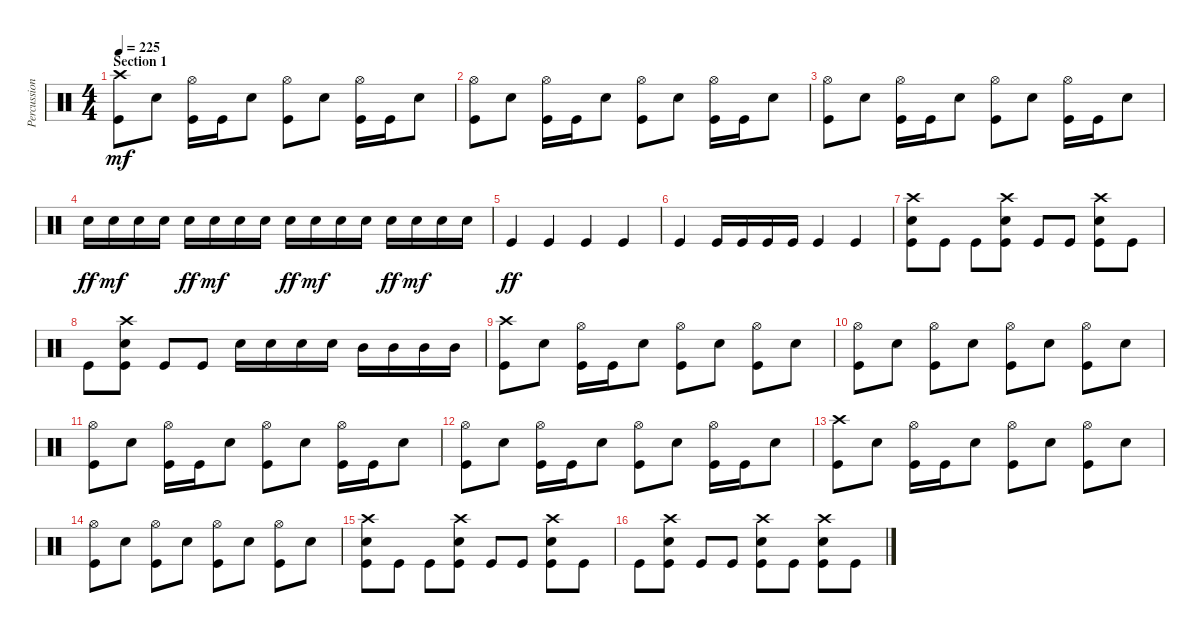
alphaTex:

\track ("Percussion" "Percussion") {instrument percussion}
\staff {score}
\articulation defaults
\ts (4 4)
\section ("" "Section 1")
\tempo 225
\clef neutral
\ks c
("Crash high (hit)" "Kick (hit)").8{dy mf} "Snare (hit) 2".8 ("Hi-Hat (open)" "Kick (hit)").16 "Kick (hit)".16 "Snare (hit) 2".8 ("Hi-Hat (open)" "Kick (hit)").8 "Snare (hit) 2".8 ("Hi-Hat (open)" "Kick (hit)").16 "Kick (hit)".16 "Snare (hit) 2".8 |
("Hi-Hat (open)" "Kick (hit)").8 "Snare (hit) 2".8 ("Hi-Hat (open)" "Kick (hit)").16 "Kick (hit)".16 "Snare (hit) 2".8 ("Hi-Hat (open)" "Kick (hit)").8 "Snare (hit) 2".8 ("Hi-Hat (open)" "Kick (hit)").16 "Kick (hit)".16 "Snare (hit) 2".8 |
("Hi-Hat (open)" "Kick (hit)").8 "Snare (hit) 2".8 ("Hi-Hat (open)" "Kick (hit)").16 "Kick (hit)".16 "Snare (hit) 2".8 ("Hi-Hat (open)" "Kick (hit)").8 "Snare (hit) 2".8 ("Hi-Hat (open)" "Kick (hit)").16 "Kick (hit)".16 "Snare (hit) 2".8 |
"Snare (hit) 2".16{dy ff} "Snare (hit) 2".16{dy mf} "Snare (hit) 2".16 "Snare (hit) 2".16 "Snare (hit) 2".16{dy ff} "Snare (hit) 2".16{dy mf} "Snare (hit) 2".16 "Snare (hit) 2".16 "Snare (hit) 2".16{dy ff} "Snare (hit) 2".16{dy mf} "Snare (hit) 2".16 "Snare (hit) 2".16 "Snare (hit) 2".16{dy ff} "Snare (hit) 2".16{dy mf} "Snare (hit) 2".16 "Snare (hit) 2".16 |
"Kick (hit)".4{dy ff} "Kick (hit)".4 "Kick (hit)".4 "Kick (hit)".4 |
"Kick (hit)".4 "Kick (hit)".16 "Kick (hit)".16 "Kick (hit)".16 "Kick (hit)".16 "Kick (hit)".4 "Kick (hit)".4 |
("Crash high (hit)" "Snare (hit) 2" "Kick (hit)").8 "Kick (hit)".8 "Kick (hit)".8 ("Crash high (hit)" "Snare (hit) 2" "Kick (hit)").8 "Kick (hit)".8 "Kick (hit)".8 ("Crash high (hit)" "Snare (hit) 2" "Kick (hit)").8 "Kick (hit)".8 |
"Kick (hit)".8 ("Crash high (hit)" "Snare (hit) 2" "Kick (hit)").8 "Kick (hit)".8 "Kick (hit)".8 "Snare (hit) 2".16 "Snare (hit) 2".16 "Snare (hit) 2".16 "Snare (hit) 2".16 "Mid Tom (hit)".16 "Mid Tom (hit)".16 "Mid Tom (hit)".16 "Mid Tom (hit)".16 |
("Crash high (hit)" "Kick (hit)").8 "Snare (hit) 2".8 ("Hi-Hat (open)" "Kick (hit)").16 "Kick (hit)".16 "Snare (hit) 2".8 ("Hi-Hat (open)" "Kick (hit)").8 "Snare (hit) 2".8 ("Hi-Hat (open)" "Kick (hit)").8 "Snare (hit) 2".8 |
("Hi-Hat (open)" "Kick (hit)").8 "Snare (hit) 2".8 ("Hi-Hat (open)" "Kick (hit)").8 "Snare (hit) 2".8 ("Hi-Hat (open)" "Kick (hit)").8 "Snare (hit) 2".8 ("Hi-Hat (open)" "Kick (hit)").8 "Snare (hit) 2".8 |
("Hi-Hat (open)" "Kick (hit)").8 "Snare (hit) 2".8 ("Hi-Hat (open)" "Kick (hit)").16 "Kick (hit)".16 "Snare (hit) 2".8 ("Hi-Hat (open)" "Kick (hit)").8 "Snare (hit) 2".8 ("Hi-Hat (open)" "Kick (hit)").16 "Kick (hit)".16 "Snare (hit) 2".8 |
("Hi-Hat (open)" "Kick (hit)").8 "Snare (hit) 2".8 ("Hi-Hat (open)" "Kick (hit)").16 "Kick (hit)".16 "Snare (hit) 2".8 ("Hi-Hat (open)" "Kick (hit)").8 "Snare (hit) 2".8 ("Hi-Hat (open)" "Kick (hit)").16 "Kick (hit)".16 "Snare (hit) 2".8 |
("Crash high (hit)" "Kick (hit)").8 "Snare (hit) 2".8 ("Hi-Hat (open)" "Kick (hit)").16 "Kick (hit)".16 "Snare (hit) 2".8 ("Hi-Hat (open)" "Kick (hit)").8 "Snare (hit) 2".8 ("Hi-Hat (open)" "Kick (hit)").8 "Snare (hit) 2".8 |
("Hi-Hat (open)" "Kick (hit)").8 "Snare (hit) 2".8 ("Hi-Hat (open)" "Kick (hit)").8 "Snare (hit) 2".8 ("Hi-Hat (open)" "Kick (hit)").8 "Snare (hit) 2".8 ("Hi-Hat (open)" "Kick (hit)").8 "Snare (hit) 2".8 |
("Kick (hit)" "Snare (hit) 2" "Crash high (hit)").8 "Kick (hit)".8 "Kick (hit)".8 ("Kick (hit)" "Crash high (hit)" "Snare (hit) 2").8 "Kick (hit)".8 "Kick (hit)".8 ("Kick (hit)" "Crash high (hit)" "Snare (hit) 2").8 "Kick (hit)".8 |
"Kick (hit)".8 ("Kick (hit)" "Crash high (hit)" "Snare (hit) 2").8 "Kick (hit)".8 "Kick (hit)".8 ("Kick (hit)" "Crash high (hit)" "Snare (hit) 2").8 "Kick (hit)".8 ("Kick (hit)" "Crash high (hit)" "Snare (hit) 2").8 "Kick (hit)".8
